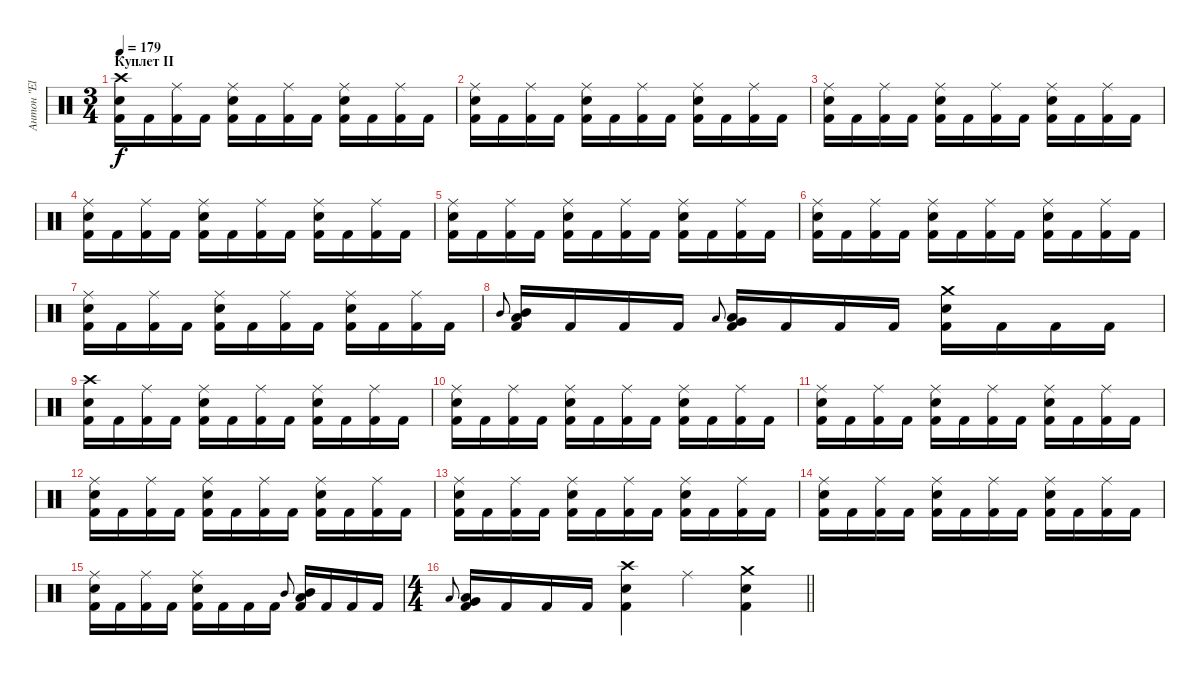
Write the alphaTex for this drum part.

\track ("Антон \"El Bastardo\" Смольянин" "Антон \"El ") {instrument percussion}
\staff {score}
\articulation defaults
\ts (3 4)
\section ("" "Куплет II")
\tempo 179
\clef neutral
\ks c
("Crash high (hit)" "Electric Snare (hit)" "Kick (hit) 2").16{dy f} "Kick (hit) 2".16 ("Ride (middle)" "Kick (hit) 2").16 "Kick (hit) 2".16 ("Ride (middle)" "Electric Snare (hit)" "Kick (hit) 2").16 "Kick (hit) 2".16 ("Ride (middle)" "Kick (hit) 2").16 "Kick (hit) 2".16 ("Ride (middle)" "Electric Snare (hit)" "Kick (hit) 2").16 "Kick (hit) 2".16 ("Ride (middle)" "Kick (hit) 2").16 "Kick (hit) 2".16 |
("Ride (middle)" "Electric Snare (hit)" "Kick (hit) 2").16 "Kick (hit) 2".16 ("Ride (middle)" "Kick (hit) 2").16 "Kick (hit) 2".16 ("Ride (middle)" "Electric Snare (hit)" "Kick (hit) 2").16 "Kick (hit) 2".16 ("Ride (middle)" "Kick (hit) 2").16 "Kick (hit) 2".16 ("Ride (middle)" "Electric Snare (hit)" "Kick (hit) 2").16 "Kick (hit) 2".16 ("Ride (middle)" "Kick (hit) 2").16 "Kick (hit) 2".16 |
("Ride (middle)" "Electric Snare (hit)" "Kick (hit) 2").16 "Kick (hit) 2".16 ("Ride (middle)" "Kick (hit) 2").16 "Kick (hit) 2".16 ("Ride (middle)" "Electric Snare (hit)" "Kick (hit) 2").16 "Kick (hit) 2".16 ("Ride (middle)" "Kick (hit) 2").16 "Kick (hit) 2".16 ("Ride (middle)" "Electric Snare (hit)" "Kick (hit) 2").16 "Kick (hit) 2".16 ("Ride (middle)" "Kick (hit) 2").16 "Kick (hit) 2".16 |
("Ride (middle)" "Electric Snare (hit)" "Kick (hit) 2").16 "Kick (hit) 2".16 ("Ride (middle)" "Kick (hit) 2").16 "Kick (hit) 2".16 ("Ride (middle)" "Electric Snare (hit)" "Kick (hit) 2").16 "Kick (hit) 2".16 ("Ride (middle)" "Kick (hit) 2").16 "Kick (hit) 2".16 ("Ride (middle)" "Electric Snare (hit)" "Kick (hit) 2").16 "Kick (hit) 2".16 ("Ride (middle)" "Kick (hit) 2").16 "Kick (hit) 2".16 |
("Ride (middle)" "Electric Snare (hit)" "Kick (hit) 2").16 "Kick (hit) 2".16 ("Ride (middle)" "Kick (hit) 2").16 "Kick (hit) 2".16 ("Ride (middle)" "Electric Snare (hit)" "Kick (hit) 2").16 "Kick (hit) 2".16 ("Ride (middle)" "Kick (hit) 2").16 "Kick (hit) 2".16 ("Ride (middle)" "Electric Snare (hit)" "Kick (hit) 2").16 "Kick (hit) 2".16 ("Ride (middle)" "Kick (hit) 2").16 "Kick (hit) 2".16 |
("Ride (middle)" "Electric Snare (hit)" "Kick (hit) 2").16 "Kick (hit) 2".16 ("Ride (middle)" "Kick (hit) 2").16 "Kick (hit) 2".16 ("Ride (middle)" "Electric Snare (hit)" "Kick (hit) 2").16 "Kick (hit) 2".16 ("Ride (middle)" "Kick (hit) 2").16 "Kick (hit) 2".16 ("Ride (middle)" "Electric Snare (hit)" "Kick (hit) 2").16 "Kick (hit) 2".16 ("Ride (middle)" "Kick (hit) 2").16 "Kick (hit) 2".16 |
("Ride (middle)" "Electric Snare (hit)" "Kick (hit) 2").16 "Kick (hit) 2".16 ("Ride (middle)" "Kick (hit) 2").16 "Kick (hit) 2".16 ("Ride (middle)" "Electric Snare (hit)" "Kick (hit) 2").16 "Kick (hit) 2".16 ("Ride (middle)" "Kick (hit) 2").16 "Kick (hit) 2".16 ("Ride (middle)" "Electric Snare (hit)" "Kick (hit) 2").16 "Kick (hit) 2".16 ("Ride (middle)" "Kick (hit) 2").16 "Kick (hit) 2".16 |
"Mid Tom (hit)".8{gr onbeat} ("Mid Tom (hit)" "Low Tom (hit)" "Kick (hit) 2").16 "Kick (hit) 2".16 "Kick (hit) 2".16 "Kick (hit) 2".16 "Low Tom (hit)".8{gr onbeat} ("Low Tom (hit)" "Very Low Tom (hit)" "Kick (hit) 2").16 "Kick (hit) 2".16 "Kick (hit) 2".16 "Kick (hit) 2".16 ("Crash medium (hit)" "Electric Snare (hit)" "Kick (hit) 2").16 "Kick (hit) 2".16 "Kick (hit) 2".16 "Kick (hit) 2".16 |
("Crash high (hit)" "Electric Snare (hit)" "Kick (hit) 2").16 "Kick (hit) 2".16 ("Ride (middle)" "Kick (hit) 2").16 "Kick (hit) 2".16 ("Ride (middle)" "Electric Snare (hit)" "Kick (hit) 2").16 "Kick (hit) 2".16 ("Ride (middle)" "Kick (hit) 2").16 "Kick (hit) 2".16 ("Ride (middle)" "Electric Snare (hit)" "Kick (hit) 2").16 "Kick (hit) 2".16 ("Ride (middle)" "Kick (hit) 2").16 "Kick (hit) 2".16 |
("Ride (middle)" "Electric Snare (hit)" "Kick (hit) 2").16 "Kick (hit) 2".16 ("Ride (middle)" "Kick (hit) 2").16 "Kick (hit) 2".16 ("Ride (middle)" "Electric Snare (hit)" "Kick (hit) 2").16 "Kick (hit) 2".16 ("Ride (middle)" "Kick (hit) 2").16 "Kick (hit) 2".16 ("Ride (middle)" "Electric Snare (hit)" "Kick (hit) 2").16 "Kick (hit) 2".16 ("Ride (middle)" "Kick (hit) 2").16 "Kick (hit) 2".16 |
("Ride (middle)" "Electric Snare (hit)" "Kick (hit) 2").16 "Kick (hit) 2".16 ("Ride (middle)" "Kick (hit) 2").16 "Kick (hit) 2".16 ("Ride (middle)" "Electric Snare (hit)" "Kick (hit) 2").16 "Kick (hit) 2".16 ("Ride (middle)" "Kick (hit) 2").16 "Kick (hit) 2".16 ("Ride (middle)" "Electric Snare (hit)" "Kick (hit) 2").16 "Kick (hit) 2".16 ("Ride (middle)" "Kick (hit) 2").16 "Kick (hit) 2".16 |
("Ride (middle)" "Electric Snare (hit)" "Kick (hit) 2").16 "Kick (hit) 2".16 ("Ride (middle)" "Kick (hit) 2").16 "Kick (hit) 2".16 ("Ride (middle)" "Electric Snare (hit)" "Kick (hit) 2").16 "Kick (hit) 2".16 ("Ride (middle)" "Kick (hit) 2").16 "Kick (hit) 2".16 ("Ride (middle)" "Electric Snare (hit)" "Kick (hit) 2").16 "Kick (hit) 2".16 ("Ride (middle)" "Kick (hit) 2").16 "Kick (hit) 2".16 |
("Ride (middle)" "Electric Snare (hit)" "Kick (hit) 2").16 "Kick (hit) 2".16 ("Ride (middle)" "Kick (hit) 2").16 "Kick (hit) 2".16 ("Ride (middle)" "Electric Snare (hit)" "Kick (hit) 2").16 "Kick (hit) 2".16 ("Ride (middle)" "Kick (hit) 2").16 "Kick (hit) 2".16 ("Ride (middle)" "Electric Snare (hit)" "Kick (hit) 2").16 "Kick (hit) 2".16 ("Ride (middle)" "Kick (hit) 2").16 "Kick (hit) 2".16 |
("Ride (middle)" "Electric Snare (hit)" "Kick (hit) 2").16 "Kick (hit) 2".16 ("Ride (middle)" "Kick (hit) 2").16 "Kick (hit) 2".16 ("Ride (middle)" "Electric Snare (hit)" "Kick (hit) 2").16 "Kick (hit) 2".16 ("Ride (middle)" "Kick (hit) 2").16 "Kick (hit) 2".16 ("Ride (middle)" "Electric Snare (hit)" "Kick (hit) 2").16 "Kick (hit) 2".16 ("Ride (middle)" "Kick (hit) 2").16 "Kick (hit) 2".16 |
("Ride (middle)" "Electric Snare (hit)" "Kick (hit) 2").16 "Kick (hit) 2".16 ("Ride (middle)" "Kick (hit) 2").16 "Kick (hit) 2".16 ("Ride (middle)" "Electric Snare (hit)" "Kick (hit) 2").16 "Kick (hit) 2".16 "Kick (hit) 2".16 "Kick (hit) 2".16 "Mid Tom (hit)".8{gr onbeat} ("Mid Tom (hit)" "Low Tom (hit)" "Kick (hit) 2").16 "Kick (hit) 2".16 "Kick (hit) 2".16 "Kick (hit) 2".16 |
\ts (4 4)
\barLineRight lightlight "Low Tom (hit)".8{gr onbeat}
("Low Tom (hit)" "Very Low Tom (hit)" "Kick (hit) 2").16 "Kick (hit) 2".16 "Kick (hit) 2".16 "Kick (hit) 2".16 ("Crash high (hit)" "Electric Snare (hit)" "Kick (hit) 2").4 "Ride (middle)".4 ("Crash medium (hit)" "Electric Snare (hit)" "Kick (hit) 2").4
